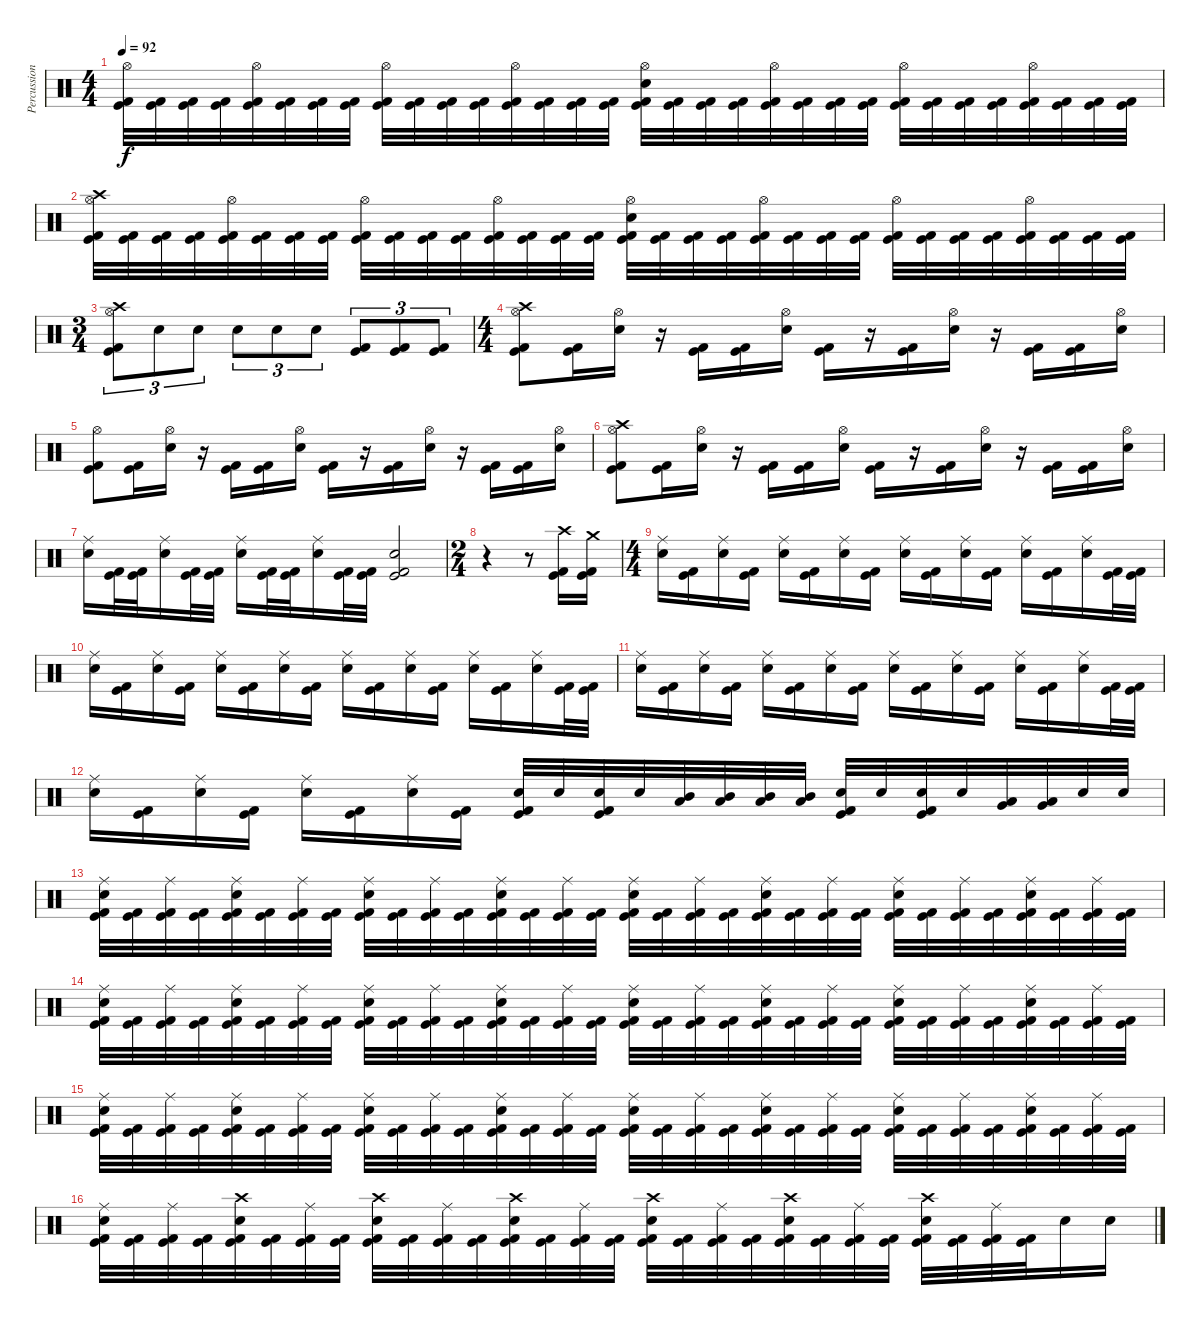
\track ("Percussion" "Percussion") {instrument percussion}
\staff {score}
\articulation defaults
\ts (4 4)
\tempo 92
\clef neutral
\ks c
("Kick (hit) 2" "Kick (hit)" "Hi-Hat (open)").32{dy f} ("Kick (hit) 2" "Kick (hit)").32 ("Kick (hit) 2" "Kick (hit)").32 ("Kick (hit) 2" "Kick (hit)").32 ("Kick (hit) 2" "Kick (hit)" "Hi-Hat (open)").32 ("Kick (hit) 2" "Kick (hit)").32 ("Kick (hit) 2" "Kick (hit)").32 ("Kick (hit) 2" "Kick (hit)").32 ("Kick (hit) 2" "Kick (hit)" "Hi-Hat (open)").32 ("Kick (hit) 2" "Kick (hit)").32 ("Kick (hit) 2" "Kick (hit)").32 ("Kick (hit) 2" "Kick (hit)").32 ("Kick (hit) 2" "Kick (hit)" "Hi-Hat (open)").32 ("Kick (hit) 2" "Kick (hit)").32 ("Kick (hit) 2" "Kick (hit)").32 ("Kick (hit) 2" "Kick (hit)").32 ("Kick (hit) 2" "Kick (hit)" "Hi-Hat (open)" "Electric Snare (hit)").32 ("Kick (hit) 2" "Kick (hit)").32 ("Kick (hit) 2" "Kick (hit)").32 ("Kick (hit) 2" "Kick (hit)").32 ("Kick (hit) 2" "Kick (hit)" "Hi-Hat (open)").32 ("Kick (hit) 2" "Kick (hit)").32 ("Kick (hit) 2" "Kick (hit)").32 ("Kick (hit) 2" "Kick (hit)").32 ("Kick (hit) 2" "Kick (hit)" "Hi-Hat (open)").32 ("Kick (hit) 2" "Kick (hit)").32 ("Kick (hit) 2" "Kick (hit)").32 ("Kick (hit) 2" "Kick (hit)").32 ("Kick (hit) 2" "Kick (hit)" "Hi-Hat (open)").32 ("Kick (hit) 2" "Kick (hit)").32 ("Kick (hit) 2" "Kick (hit)").32 ("Kick (hit) 2" "Kick (hit)").32 |
("Kick (hit) 2" "Kick (hit)" "Hi-Hat (open)" "Crash high (hit)").32 ("Kick (hit) 2" "Kick (hit)").32 ("Kick (hit) 2" "Kick (hit)").32 ("Kick (hit) 2" "Kick (hit)").32 ("Kick (hit) 2" "Kick (hit)" "Hi-Hat (open)").32 ("Kick (hit) 2" "Kick (hit)").32 ("Kick (hit) 2" "Kick (hit)").32 ("Kick (hit) 2" "Kick (hit)").32 ("Kick (hit) 2" "Kick (hit)" "Hi-Hat (open)").32 ("Kick (hit) 2" "Kick (hit)").32 ("Kick (hit) 2" "Kick (hit)").32 ("Kick (hit) 2" "Kick (hit)").32 ("Kick (hit) 2" "Kick (hit)" "Hi-Hat (open)").32 ("Kick (hit) 2" "Kick (hit)").32 ("Kick (hit) 2" "Kick (hit)").32 ("Kick (hit) 2" "Kick (hit)").32 ("Kick (hit) 2" "Kick (hit)" "Hi-Hat (open)" "Electric Snare (hit)").32 ("Kick (hit) 2" "Kick (hit)").32 ("Kick (hit) 2" "Kick (hit)").32 ("Kick (hit) 2" "Kick (hit)").32 ("Kick (hit) 2" "Kick (hit)" "Hi-Hat (open)").32 ("Kick (hit) 2" "Kick (hit)").32 ("Kick (hit) 2" "Kick (hit)").32 ("Kick (hit) 2" "Kick (hit)").32 ("Kick (hit) 2" "Kick (hit)" "Hi-Hat (open)").32 ("Kick (hit) 2" "Kick (hit)").32 ("Kick (hit) 2" "Kick (hit)").32 ("Kick (hit) 2" "Kick (hit)").32 ("Kick (hit) 2" "Kick (hit)" "Hi-Hat (open)").32 ("Kick (hit) 2" "Kick (hit)").32 ("Kick (hit) 2" "Kick (hit)").32 ("Kick (hit) 2" "Kick (hit)").32 |
\ts (3 4)
("Kick (hit) 2" "Kick (hit)" "Hi-Hat (open)" "Crash high (hit)").8{tu (3 2)} "Electric Snare (hit)".8{tu (3 2)} "Electric Snare (hit)".8{tu (3 2)} "Electric Snare (hit)".8{tu (3 2)} "Electric Snare (hit)".8{tu (3 2)} "Electric Snare (hit)".8{tu (3 2)} ("Kick (hit) 2" "Kick (hit)").8{tu (3 2)} ("Kick (hit) 2" "Kick (hit)").8{tu (3 2)} ("Kick (hit) 2" "Kick (hit)").8{tu (3 2)} |
\ts (4 4)
("Kick (hit) 2" "Kick (hit)" "Hi-Hat (open)" "Crash high (hit)").8 ("Kick (hit) 2" "Kick (hit)").16 ("Electric Snare (hit)" "Hi-Hat (open)").16 r.16 ("Kick (hit) 2" "Kick (hit)").16 ("Kick (hit) 2" "Kick (hit)").16 ("Electric Snare (hit)" "Hi-Hat (open)").16 ("Kick (hit) 2" "Kick (hit)").16 r.16 ("Kick (hit) 2" "Kick (hit)").16 ("Electric Snare (hit)" "Hi-Hat (open)").16 r.16 ("Kick (hit) 2" "Kick (hit)").16 ("Kick (hit) 2" "Kick (hit)").16 ("Electric Snare (hit)" "Hi-Hat (open)").16 |
("Kick (hit) 2" "Kick (hit)" "Hi-Hat (open)").8 ("Kick (hit) 2" "Kick (hit)").16 ("Electric Snare (hit)" "Hi-Hat (open)").16 r.16 ("Kick (hit) 2" "Kick (hit)").16 ("Kick (hit) 2" "Kick (hit)").16 ("Electric Snare (hit)" "Hi-Hat (open)").16 ("Kick (hit) 2" "Kick (hit)").16 r.16 ("Kick (hit) 2" "Kick (hit)").16 ("Electric Snare (hit)" "Hi-Hat (open)").16 r.16 ("Kick (hit) 2" "Kick (hit)").16 ("Kick (hit) 2" "Kick (hit)").16 ("Electric Snare (hit)" "Hi-Hat (open)").16 |
("Kick (hit) 2" "Kick (hit)" "Hi-Hat (open)" "Crash high (hit)").8 ("Kick (hit) 2" "Kick (hit)").16 ("Electric Snare (hit)" "Hi-Hat (open)").16 r.16 ("Kick (hit) 2" "Kick (hit)").16 ("Kick (hit) 2" "Kick (hit)").16 ("Electric Snare (hit)" "Hi-Hat (open)").16 ("Kick (hit) 2" "Kick (hit)").16 r.16 ("Kick (hit) 2" "Kick (hit)").16 ("Electric Snare (hit)" "Hi-Hat (open)").16 r.16 ("Kick (hit) 2" "Kick (hit)").16 ("Kick (hit) 2" "Kick (hit)").16 ("Electric Snare (hit)" "Hi-Hat (open)").16 |
("Electric Snare (hit)" "Ride (middle)").16 ("Kick (hit) 2" "Kick (hit)").32 ("Kick (hit) 2" "Kick (hit)").32 ("Electric Snare (hit)" "Ride (middle)").16 ("Kick (hit) 2" "Kick (hit)").32 ("Kick (hit) 2" "Kick (hit)").32 ("Electric Snare (hit)" "Ride (middle)").16 ("Kick (hit) 2" "Kick (hit)").32 ("Kick (hit) 2" "Kick (hit)").32 ("Electric Snare (hit)" "Ride (middle)").16 ("Kick (hit) 2" "Kick (hit)").32 ("Kick (hit) 2" "Kick (hit)").32 ("Kick (hit) 2" "Kick (hit)" "Electric Snare (hit)").2 |
\ts (2 4)
r.4 r.8 ("Kick (hit) 2" "Kick (hit)" "Crash high (hit)").16 ("Kick (hit) 2" "Kick (hit)" "Crash medium (hit)").16 |
\ts (4 4)
("Electric Snare (hit)" "Ride (middle)").16 ("Kick (hit) 2" "Kick (hit)").16 ("Electric Snare (hit)" "Ride (middle)").16 ("Kick (hit) 2" "Kick (hit)").16 ("Electric Snare (hit)" "Ride (middle)").16 ("Kick (hit) 2" "Kick (hit)").16 ("Electric Snare (hit)" "Ride (middle)").16 ("Kick (hit) 2" "Kick (hit)").16 ("Electric Snare (hit)" "Ride (middle)").16 ("Kick (hit) 2" "Kick (hit)").16 ("Electric Snare (hit)" "Ride (middle)").16 ("Kick (hit) 2" "Kick (hit)").16 ("Electric Snare (hit)" "Ride (middle)").16 ("Kick (hit) 2" "Kick (hit)").16 ("Electric Snare (hit)" "Ride (middle)").16 ("Kick (hit) 2" "Kick (hit)").32 ("Kick (hit) 2" "Kick (hit)").32 |
("Electric Snare (hit)" "Ride (middle)").16 ("Kick (hit) 2" "Kick (hit)").16 ("Electric Snare (hit)" "Ride (middle)").16 ("Kick (hit) 2" "Kick (hit)").16 ("Electric Snare (hit)" "Ride (middle)").16 ("Kick (hit) 2" "Kick (hit)").16 ("Electric Snare (hit)" "Ride (middle)").16 ("Kick (hit) 2" "Kick (hit)").16 ("Electric Snare (hit)" "Ride (middle)").16 ("Kick (hit) 2" "Kick (hit)").16 ("Electric Snare (hit)" "Ride (middle)").16 ("Kick (hit) 2" "Kick (hit)").16 ("Electric Snare (hit)" "Ride (middle)").16 ("Kick (hit) 2" "Kick (hit)").16 ("Electric Snare (hit)" "Ride (middle)").16 ("Kick (hit) 2" "Kick (hit)").32 ("Kick (hit) 2" "Kick (hit)").32 |
("Electric Snare (hit)" "Ride (middle)").16 ("Kick (hit) 2" "Kick (hit)").16 ("Electric Snare (hit)" "Ride (middle)").16 ("Kick (hit) 2" "Kick (hit)").16 ("Electric Snare (hit)" "Ride (middle)").16 ("Kick (hit) 2" "Kick (hit)").16 ("Electric Snare (hit)" "Ride (middle)").16 ("Kick (hit) 2" "Kick (hit)").16 ("Electric Snare (hit)" "Ride (middle)").16 ("Kick (hit) 2" "Kick (hit)").16 ("Electric Snare (hit)" "Ride (middle)").16 ("Kick (hit) 2" "Kick (hit)").16 ("Electric Snare (hit)" "Ride (middle)").16 ("Kick (hit) 2" "Kick (hit)").16 ("Electric Snare (hit)" "Ride (middle)").16 ("Kick (hit) 2" "Kick (hit)").32 ("Kick (hit) 2" "Kick (hit)").32 |
("Electric Snare (hit)" "Ride (middle)").16 ("Kick (hit) 2" "Kick (hit)").16 ("Electric Snare (hit)" "Ride (middle)").16 ("Kick (hit) 2" "Kick (hit)").16 ("Electric Snare (hit)" "Ride (middle)").16 ("Kick (hit) 2" "Kick (hit)").16 ("Electric Snare (hit)" "Ride (middle)").16 ("Kick (hit) 2" "Kick (hit)").16 ("Electric Snare (hit)" "Kick (hit) 2" "Kick (hit)").32 "Electric Snare (hit)".32 ("Electric Snare (hit)" "Kick (hit) 2" "Kick (hit)").32 "Electric Snare (hit)".32 ("Mid Tom (hit)" "Low Tom (hit)").32 ("Mid Tom (hit)" "Low Tom (hit)").32 ("Mid Tom (hit)" "Low Tom (hit)").32 ("Mid Tom (hit)" "Low Tom (hit)").32 ("Electric Snare (hit)" "Kick (hit) 2" "Kick (hit)").32 "Electric Snare (hit)".32 ("Electric Snare (hit)" "Kick (hit) 2" "Kick (hit)").32 "Electric Snare (hit)".32 ("Very Low Tom (hit)" "Low Floor Tom (hit)").32 ("Very Low Tom (hit)" "Low Floor Tom (hit)").32 "Electric Snare (hit)".32 "Electric Snare (hit)".32 |
("Kick (hit) 2" "Kick (hit)" "Electric Snare (hit)" "Ride (middle)").32 ("Kick (hit) 2" "Kick (hit)").32 ("Kick (hit) 2" "Kick (hit)" "Ride (middle)").32 ("Kick (hit) 2" "Kick (hit)").32 ("Kick (hit) 2" "Kick (hit)" "Electric Snare (hit)" "Ride (middle)").32 ("Kick (hit) 2" "Kick (hit)").32 ("Kick (hit) 2" "Kick (hit)" "Ride (middle)").32 ("Kick (hit) 2" "Kick (hit)").32 ("Kick (hit) 2" "Kick (hit)" "Electric Snare (hit)" "Ride (middle)").32 ("Kick (hit) 2" "Kick (hit)").32 ("Kick (hit) 2" "Kick (hit)" "Ride (middle)").32 ("Kick (hit) 2" "Kick (hit)").32 ("Kick (hit) 2" "Kick (hit)" "Electric Snare (hit)" "Ride (middle)").32 ("Kick (hit) 2" "Kick (hit)").32 ("Kick (hit) 2" "Kick (hit)" "Ride (middle)").32 ("Kick (hit) 2" "Kick (hit)").32 ("Kick (hit) 2" "Kick (hit)" "Electric Snare (hit)" "Ride (middle)").32 ("Kick (hit) 2" "Kick (hit)").32 ("Kick (hit) 2" "Kick (hit)" "Ride (middle)").32 ("Kick (hit) 2" "Kick (hit)").32 ("Kick (hit) 2" "Kick (hit)" "Electric Snare (hit)" "Ride (middle)").32 ("Kick (hit) 2" "Kick (hit)").32 ("Kick (hit) 2" "Kick (hit)" "Ride (middle)").32 ("Kick (hit) 2" "Kick (hit)").32 ("Kick (hit) 2" "Kick (hit)" "Electric Snare (hit)" "Ride (middle)").32 ("Kick (hit) 2" "Kick (hit)").32 ("Kick (hit) 2" "Kick (hit)" "Ride (middle)").32 ("Kick (hit) 2" "Kick (hit)").32 ("Kick (hit) 2" "Kick (hit)" "Electric Snare (hit)" "Ride (middle)").32 ("Kick (hit) 2" "Kick (hit)").32 ("Kick (hit) 2" "Kick (hit)" "Ride (middle)").32 ("Kick (hit) 2" "Kick (hit)").32 |
("Kick (hit) 2" "Kick (hit)" "Electric Snare (hit)" "Ride (middle)").32 ("Kick (hit) 2" "Kick (hit)").32 ("Kick (hit) 2" "Kick (hit)" "Ride (middle)").32 ("Kick (hit) 2" "Kick (hit)").32 ("Kick (hit) 2" "Kick (hit)" "Electric Snare (hit)" "Ride (middle)").32 ("Kick (hit) 2" "Kick (hit)").32 ("Kick (hit) 2" "Kick (hit)" "Ride (middle)").32 ("Kick (hit) 2" "Kick (hit)").32 ("Kick (hit) 2" "Kick (hit)" "Electric Snare (hit)" "Ride (middle)").32 ("Kick (hit) 2" "Kick (hit)").32 ("Kick (hit) 2" "Kick (hit)" "Ride (middle)").32 ("Kick (hit) 2" "Kick (hit)").32 ("Kick (hit) 2" "Kick (hit)" "Electric Snare (hit)" "Ride (middle)").32 ("Kick (hit) 2" "Kick (hit)").32 ("Kick (hit) 2" "Kick (hit)" "Ride (middle)").32 ("Kick (hit) 2" "Kick (hit)").32 ("Kick (hit) 2" "Kick (hit)" "Electric Snare (hit)" "Ride (middle)").32 ("Kick (hit) 2" "Kick (hit)").32 ("Kick (hit) 2" "Kick (hit)" "Ride (middle)").32 ("Kick (hit) 2" "Kick (hit)").32 ("Kick (hit) 2" "Kick (hit)" "Electric Snare (hit)" "Ride (middle)").32 ("Kick (hit) 2" "Kick (hit)").32 ("Kick (hit) 2" "Kick (hit)" "Ride (middle)").32 ("Kick (hit) 2" "Kick (hit)").32 ("Kick (hit) 2" "Kick (hit)" "Electric Snare (hit)" "Ride (middle)").32 ("Kick (hit) 2" "Kick (hit)").32 ("Kick (hit) 2" "Kick (hit)" "Ride (middle)").32 ("Kick (hit) 2" "Kick (hit)").32 ("Kick (hit) 2" "Kick (hit)" "Electric Snare (hit)" "Ride (middle)").32 ("Kick (hit) 2" "Kick (hit)").32 ("Kick (hit) 2" "Kick (hit)" "Ride (middle)").32 ("Kick (hit) 2" "Kick (hit)").32 |
("Kick (hit) 2" "Kick (hit)" "Electric Snare (hit)" "Ride (middle)").32 ("Kick (hit) 2" "Kick (hit)").32 ("Kick (hit) 2" "Kick (hit)" "Ride (middle)").32 ("Kick (hit) 2" "Kick (hit)").32 ("Kick (hit) 2" "Kick (hit)" "Electric Snare (hit)" "Ride (middle)").32 ("Kick (hit) 2" "Kick (hit)").32 ("Kick (hit) 2" "Kick (hit)" "Ride (middle)").32 ("Kick (hit) 2" "Kick (hit)").32 ("Kick (hit) 2" "Kick (hit)" "Electric Snare (hit)" "Ride (middle)").32 ("Kick (hit) 2" "Kick (hit)").32 ("Kick (hit) 2" "Kick (hit)" "Ride (middle)").32 ("Kick (hit) 2" "Kick (hit)").32 ("Kick (hit) 2" "Kick (hit)" "Electric Snare (hit)" "Ride (middle)").32 ("Kick (hit) 2" "Kick (hit)").32 ("Kick (hit) 2" "Kick (hit)" "Ride (middle)").32 ("Kick (hit) 2" "Kick (hit)").32 ("Kick (hit) 2" "Kick (hit)" "Electric Snare (hit)" "Ride (middle)").32 ("Kick (hit) 2" "Kick (hit)").32 ("Kick (hit) 2" "Kick (hit)" "Ride (middle)").32 ("Kick (hit) 2" "Kick (hit)").32 ("Kick (hit) 2" "Kick (hit)" "Electric Snare (hit)" "Ride (middle)").32 ("Kick (hit) 2" "Kick (hit)").32 ("Kick (hit) 2" "Kick (hit)" "Ride (middle)").32 ("Kick (hit) 2" "Kick (hit)").32 ("Kick (hit) 2" "Kick (hit)" "Electric Snare (hit)" "Ride (middle)").32 ("Kick (hit) 2" "Kick (hit)").32 ("Kick (hit) 2" "Kick (hit)" "Ride (middle)").32 ("Kick (hit) 2" "Kick (hit)").32 ("Kick (hit) 2" "Kick (hit)" "Electric Snare (hit)" "Ride (middle)").32 ("Kick (hit) 2" "Kick (hit)").32 ("Kick (hit) 2" "Kick (hit)" "Ride (middle)").32 ("Kick (hit) 2" "Kick (hit)").32 |
("Kick (hit) 2" "Kick (hit)" "Electric Snare (hit)" "Ride (middle)").32 ("Kick (hit) 2" "Kick (hit)").32 ("Kick (hit) 2" "Kick (hit)" "Ride (middle)").32 ("Kick (hit) 2" "Kick (hit)").32 ("Kick (hit) 2" "Kick (hit)" "Electric Snare (hit)" "Crash high (hit)").32 ("Kick (hit) 2" "Kick (hit)").32 ("Kick (hit) 2" "Kick (hit)" "Ride (middle)").32 ("Kick (hit) 2" "Kick (hit)").32 ("Kick (hit) 2" "Kick (hit)" "Electric Snare (hit)" "Crash high (hit)").32 ("Kick (hit) 2" "Kick (hit)").32 ("Kick (hit) 2" "Kick (hit)" "Ride (middle)").32 ("Kick (hit) 2" "Kick (hit)").32 ("Kick (hit) 2" "Kick (hit)" "Electric Snare (hit)" "Crash high (hit)").32 ("Kick (hit) 2" "Kick (hit)").32 ("Kick (hit) 2" "Kick (hit)" "Ride (middle)").32 ("Kick (hit) 2" "Kick (hit)").32 ("Kick (hit) 2" "Kick (hit)" "Electric Snare (hit)" "Crash high (hit)").32 ("Kick (hit) 2" "Kick (hit)").32 ("Kick (hit) 2" "Kick (hit)" "Ride (middle)").32 ("Kick (hit) 2" "Kick (hit)").32 ("Kick (hit) 2" "Kick (hit)" "Electric Snare (hit)" "Crash high (hit)").32 ("Kick (hit) 2" "Kick (hit)").32 ("Kick (hit) 2" "Kick (hit)" "Ride (middle)").32 ("Kick (hit) 2" "Kick (hit)").32 ("Kick (hit) 2" "Kick (hit)" "Electric Snare (hit)" "Crash high (hit)").32 ("Kick (hit) 2" "Kick (hit)").32 ("Kick (hit) 2" "Kick (hit)" "Ride (middle)").32 ("Kick (hit) 2" "Kick (hit)").32 "Electric Snare (hit)".16 "Electric Snare (hit)".16
